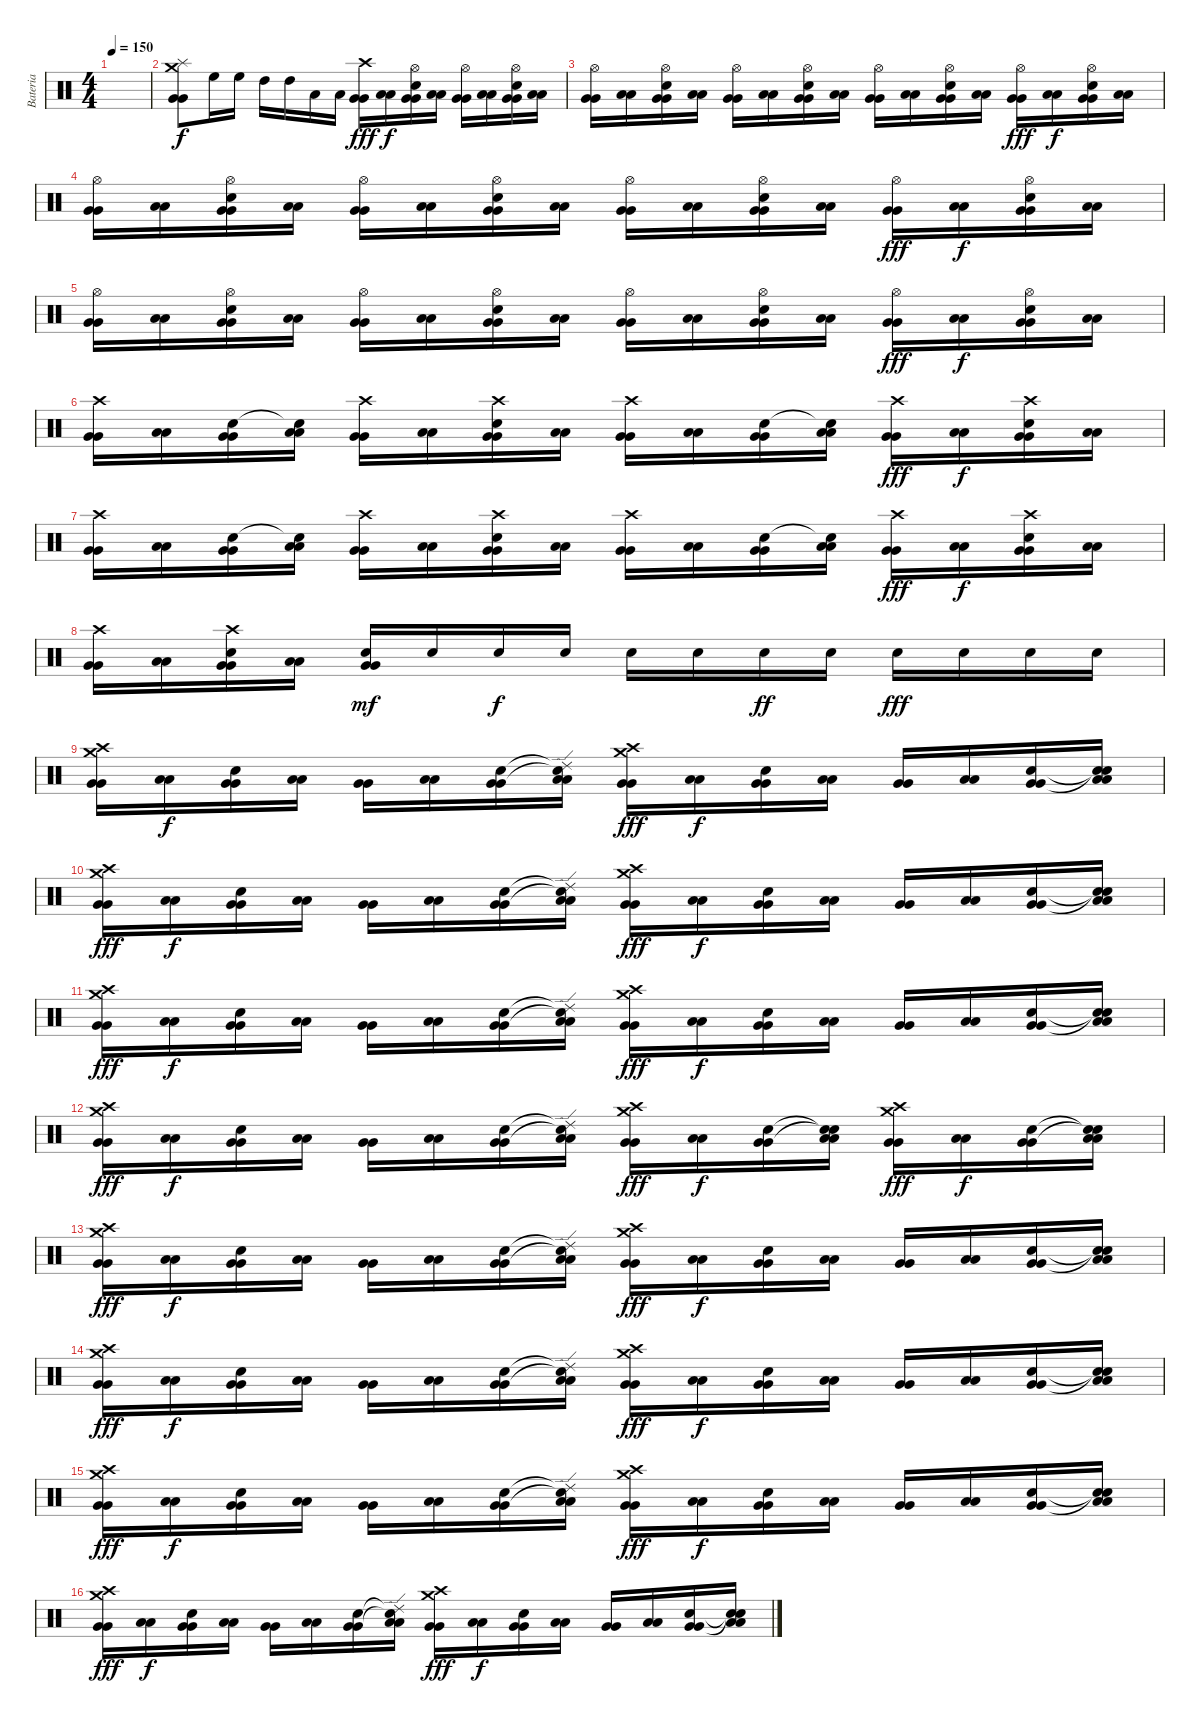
\track ("Bateria" "Bateria") {instrument percussion}
\staff {score}
\articulation defaults
\ts (4 4)
\tempo 150
\clef neutral
\ks c
|
("Splash (hit)" "Crash medium (hit)" "Very Low Tom (hit)" "Very Low Tom (hit)").8 "High Floor Tom (hit)".16 "High Floor Tom (hit)".16 "High Tom (hit)".16 "High Tom (hit)".16 "Low Tom (hit)".16 "Low Tom (hit)".16 ("Crash high (hit)" "Very Low Tom (hit)" "Very Low Tom (hit)").16{dy fff} ("Low Floor Tom (hit)" "Low Floor Tom (hit)").16{dy f} ("Hi-Hat (open)" "Electric Snare (hit)" "Very Low Tom (hit)" "Very Low Tom (hit)").16 ("Low Floor Tom (hit)" "Low Floor Tom (hit)").16 ("Hi-Hat (open)" "Very Low Tom (hit)" "Very Low Tom (hit)").16 ("Low Floor Tom (hit)" "Low Floor Tom (hit)").16 ("Hi-Hat (open)" "Electric Snare (hit)" "Very Low Tom (hit)" "Very Low Tom (hit)").16 ("Low Floor Tom (hit)" "Low Floor Tom (hit)").16 |
("Hi-Hat (open)" "Very Low Tom (hit)" "Very Low Tom (hit)").16 ("Low Floor Tom (hit)" "Low Floor Tom (hit)").16 ("Hi-Hat (open)" "Electric Snare (hit)" "Very Low Tom (hit)" "Very Low Tom (hit)").16 ("Low Floor Tom (hit)" "Low Floor Tom (hit)").16 ("Hi-Hat (open)" "Very Low Tom (hit)" "Very Low Tom (hit)").16 ("Low Floor Tom (hit)" "Low Floor Tom (hit)").16 ("Hi-Hat (open)" "Electric Snare (hit)" "Very Low Tom (hit)" "Very Low Tom (hit)").16 ("Low Floor Tom (hit)" "Low Floor Tom (hit)").16 ("Hi-Hat (open)" "Very Low Tom (hit)" "Very Low Tom (hit)").16 ("Low Floor Tom (hit)" "Low Floor Tom (hit)").16 ("Hi-Hat (open)" "Electric Snare (hit)" "Very Low Tom (hit)" "Very Low Tom (hit)").16 ("Low Floor Tom (hit)" "Low Floor Tom (hit)").16 ("Hi-Hat (open)" "Very Low Tom (hit)" "Very Low Tom (hit)").16{dy fff} ("Low Floor Tom (hit)" "Low Floor Tom (hit)").16{dy f} ("Hi-Hat (open)" "Electric Snare (hit)" "Very Low Tom (hit)" "Very Low Tom (hit)").16 ("Low Floor Tom (hit)" "Low Floor Tom (hit)").16 |
("Hi-Hat (open)" "Very Low Tom (hit)" "Very Low Tom (hit)").16 ("Low Floor Tom (hit)" "Low Floor Tom (hit)").16 ("Hi-Hat (open)" "Electric Snare (hit)" "Very Low Tom (hit)" "Very Low Tom (hit)").16 ("Low Floor Tom (hit)" "Low Floor Tom (hit)").16 ("Hi-Hat (open)" "Very Low Tom (hit)" "Very Low Tom (hit)").16 ("Low Floor Tom (hit)" "Low Floor Tom (hit)").16 ("Hi-Hat (open)" "Electric Snare (hit)" "Very Low Tom (hit)" "Very Low Tom (hit)").16 ("Low Floor Tom (hit)" "Low Floor Tom (hit)").16 ("Hi-Hat (open)" "Very Low Tom (hit)" "Very Low Tom (hit)").16 ("Low Floor Tom (hit)" "Low Floor Tom (hit)").16 ("Hi-Hat (open)" "Electric Snare (hit)" "Very Low Tom (hit)" "Very Low Tom (hit)").16 ("Low Floor Tom (hit)" "Low Floor Tom (hit)").16 ("Hi-Hat (open)" "Very Low Tom (hit)" "Very Low Tom (hit)").16{dy fff} ("Low Floor Tom (hit)" "Low Floor Tom (hit)").16{dy f} ("Hi-Hat (open)" "Electric Snare (hit)" "Very Low Tom (hit)" "Very Low Tom (hit)").16 ("Low Floor Tom (hit)" "Low Floor Tom (hit)").16 |
("Hi-Hat (open)" "Very Low Tom (hit)" "Very Low Tom (hit)").16 ("Low Floor Tom (hit)" "Low Floor Tom (hit)").16 ("Hi-Hat (open)" "Electric Snare (hit)" "Very Low Tom (hit)" "Very Low Tom (hit)").16 ("Low Floor Tom (hit)" "Low Floor Tom (hit)").16 ("Hi-Hat (open)" "Very Low Tom (hit)" "Very Low Tom (hit)").16 ("Low Floor Tom (hit)" "Low Floor Tom (hit)").16 ("Hi-Hat (open)" "Electric Snare (hit)" "Very Low Tom (hit)" "Very Low Tom (hit)").16 ("Low Floor Tom (hit)" "Low Floor Tom (hit)").16 ("Hi-Hat (open)" "Very Low Tom (hit)" "Very Low Tom (hit)").16 ("Low Floor Tom (hit)" "Low Floor Tom (hit)").16 ("Hi-Hat (open)" "Electric Snare (hit)" "Very Low Tom (hit)" "Very Low Tom (hit)").16 ("Low Floor Tom (hit)" "Low Floor Tom (hit)").16 ("Hi-Hat (open)" "Very Low Tom (hit)" "Very Low Tom (hit)").16{dy fff} ("Low Floor Tom (hit)" "Low Floor Tom (hit)").16{dy f} ("Hi-Hat (open)" "Electric Snare (hit)" "Very Low Tom (hit)" "Very Low Tom (hit)").16 ("Low Floor Tom (hit)" "Low Floor Tom (hit)").16 |
("Crash high (hit)" "Very Low Tom (hit)" "Very Low Tom (hit)").16 ("Low Floor Tom (hit)" "Low Floor Tom (hit)").16 ("Electric Snare (hit)" "Very Low Tom (hit)" "Very Low Tom (hit)").16 ("Snare (hit)"{t} "Low Floor Tom (hit)" "Low Floor Tom (hit)").16 ("Crash high (hit)" "Very Low Tom (hit)" "Very Low Tom (hit)").16 ("Low Floor Tom (hit)" "Low Floor Tom (hit)").16 ("Crash high (hit)" "Electric Snare (hit)" "Very Low Tom (hit)" "Very Low Tom (hit)").16 ("Low Floor Tom (hit)" "Low Floor Tom (hit)").16 ("Crash high (hit)" "Very Low Tom (hit)" "Very Low Tom (hit)").16 ("Low Floor Tom (hit)" "Low Floor Tom (hit)").16 ("Electric Snare (hit)" "Very Low Tom (hit)" "Very Low Tom (hit)").16 ("Snare (hit)"{t} "Low Floor Tom (hit)" "Low Floor Tom (hit)").16 ("Crash high (hit)" "Very Low Tom (hit)" "Very Low Tom (hit)").16{dy fff} ("Low Floor Tom (hit)" "Low Floor Tom (hit)").16{dy f} ("Crash high (hit)" "Electric Snare (hit)" "Very Low Tom (hit)" "Very Low Tom (hit)").16 ("Low Floor Tom (hit)" "Low Floor Tom (hit)").16 |
("Crash high (hit)" "Very Low Tom (hit)" "Very Low Tom (hit)").16 ("Low Floor Tom (hit)" "Low Floor Tom (hit)").16 ("Electric Snare (hit)" "Very Low Tom (hit)" "Very Low Tom (hit)").16 ("Snare (hit)"{t} "Low Floor Tom (hit)" "Low Floor Tom (hit)").16 ("Crash high (hit)" "Very Low Tom (hit)" "Very Low Tom (hit)").16 ("Low Floor Tom (hit)" "Low Floor Tom (hit)").16 ("Crash high (hit)" "Electric Snare (hit)" "Very Low Tom (hit)" "Very Low Tom (hit)").16 ("Low Floor Tom (hit)" "Low Floor Tom (hit)").16 ("Crash high (hit)" "Very Low Tom (hit)" "Very Low Tom (hit)").16 ("Low Floor Tom (hit)" "Low Floor Tom (hit)").16 ("Electric Snare (hit)" "Very Low Tom (hit)" "Very Low Tom (hit)").16 ("Snare (hit)"{t} "Low Floor Tom (hit)" "Low Floor Tom (hit)").16 ("Crash high (hit)" "Very Low Tom (hit)" "Very Low Tom (hit)").16{dy fff} ("Low Floor Tom (hit)" "Low Floor Tom (hit)").16{dy f} ("Crash high (hit)" "Electric Snare (hit)" "Very Low Tom (hit)" "Very Low Tom (hit)").16 ("Low Floor Tom (hit)" "Low Floor Tom (hit)").16 |
("Crash high (hit)" "Very Low Tom (hit)" "Very Low Tom (hit)").16 ("Low Floor Tom (hit)" "Low Floor Tom (hit)").16 ("Crash high (hit)" "Electric Snare (hit)" "Very Low Tom (hit)" "Very Low Tom (hit)").16 ("Low Floor Tom (hit)" "Low Floor Tom (hit)").16 ("Electric Snare (hit)" "Very Low Tom (hit)" "Very Low Tom (hit)").16{dy mf} "Electric Snare (hit)".16 "Electric Snare (hit)".16{dy f} "Electric Snare (hit)".16 "Electric Snare (hit)".16 "Electric Snare (hit)".16 "Electric Snare (hit)".16{dy ff} "Electric Snare (hit)".16 "Electric Snare (hit)".16{dy fff} "Electric Snare (hit)".16 "Electric Snare (hit)".16 "Electric Snare (hit)".16 |
("Crash high (hit)" "Crash medium (hit)" "Very Low Tom (hit)" "Very Low Tom (hit)").16 ("Low Floor Tom (hit)" "Low Floor Tom (hit)").16{dy f} ("Electric Snare (hit)" "Very Low Tom (hit)" "Very Low Tom (hit)").16 ("Low Floor Tom (hit)" "Low Floor Tom (hit)").16 ("Very Low Tom (hit)" "Very Low Tom (hit)").16 ("Low Floor Tom (hit)" "Low Floor Tom (hit)").16 ("Electric Snare (hit)" "Very Low Tom (hit)" "Very Low Tom (hit)").16 ("Ride (edge) 2"{t} "Snare (hit)"{t} "Low Floor Tom (hit)" "Low Floor Tom (hit)").16 ("Crash high (hit)" "Crash medium (hit)" "Very Low Tom (hit)" "Very Low Tom (hit)").16{dy fff} ("Low Floor Tom (hit)" "Low Floor Tom (hit)").16{dy f} ("Electric Snare (hit)" "Very Low Tom (hit)" "Very Low Tom (hit)").16 ("Low Floor Tom (hit)" "Low Floor Tom (hit)").16 ("Very Low Tom (hit)" "Very Low Tom (hit)").16 ("Low Floor Tom (hit)" "Low Floor Tom (hit)").16 ("Electric Snare (hit)" "Very Low Tom (hit)" "Very Low Tom (hit)").16 ("Snare (hit)"{t} "Snare (hit)"{t} "Low Floor Tom (hit)" "Low Floor Tom (hit)").16 |
("Crash high (hit)" "Crash medium (hit)" "Very Low Tom (hit)" "Very Low Tom (hit)").16{dy fff} ("Low Floor Tom (hit)" "Low Floor Tom (hit)").16{dy f} ("Electric Snare (hit)" "Very Low Tom (hit)" "Very Low Tom (hit)").16 ("Low Floor Tom (hit)" "Low Floor Tom (hit)").16 ("Very Low Tom (hit)" "Very Low Tom (hit)").16 ("Low Floor Tom (hit)" "Low Floor Tom (hit)").16 ("Electric Snare (hit)" "Very Low Tom (hit)" "Very Low Tom (hit)").16 ("Ride (edge) 2"{t} "Snare (hit)"{t} "Low Floor Tom (hit)" "Low Floor Tom (hit)").16 ("Crash high (hit)" "Crash medium (hit)" "Very Low Tom (hit)" "Very Low Tom (hit)").16{dy fff} ("Low Floor Tom (hit)" "Low Floor Tom (hit)").16{dy f} ("Electric Snare (hit)" "Very Low Tom (hit)" "Very Low Tom (hit)").16 ("Low Floor Tom (hit)" "Low Floor Tom (hit)").16 ("Very Low Tom (hit)" "Very Low Tom (hit)").16 ("Low Floor Tom (hit)" "Low Floor Tom (hit)").16 ("Electric Snare (hit)" "Very Low Tom (hit)" "Very Low Tom (hit)").16 ("Snare (hit)"{t} "Snare (hit)"{t} "Low Floor Tom (hit)" "Low Floor Tom (hit)").16 |
("Crash high (hit)" "Crash medium (hit)" "Very Low Tom (hit)" "Very Low Tom (hit)").16{dy fff} ("Low Floor Tom (hit)" "Low Floor Tom (hit)").16{dy f} ("Electric Snare (hit)" "Very Low Tom (hit)" "Very Low Tom (hit)").16 ("Low Floor Tom (hit)" "Low Floor Tom (hit)").16 ("Very Low Tom (hit)" "Very Low Tom (hit)").16 ("Low Floor Tom (hit)" "Low Floor Tom (hit)").16 ("Electric Snare (hit)" "Very Low Tom (hit)" "Very Low Tom (hit)").16 ("Ride (edge) 2"{t} "Snare (hit)"{t} "Low Floor Tom (hit)" "Low Floor Tom (hit)").16 ("Crash high (hit)" "Crash medium (hit)" "Very Low Tom (hit)" "Very Low Tom (hit)").16{dy fff} ("Low Floor Tom (hit)" "Low Floor Tom (hit)").16{dy f} ("Electric Snare (hit)" "Very Low Tom (hit)" "Very Low Tom (hit)").16 ("Low Floor Tom (hit)" "Low Floor Tom (hit)").16 ("Very Low Tom (hit)" "Very Low Tom (hit)").16 ("Low Floor Tom (hit)" "Low Floor Tom (hit)").16 ("Electric Snare (hit)" "Very Low Tom (hit)" "Very Low Tom (hit)").16 ("Snare (hit)"{t} "Snare (hit)"{t} "Low Floor Tom (hit)" "Low Floor Tom (hit)").16 |
("Crash high (hit)" "Crash medium (hit)" "Very Low Tom (hit)" "Very Low Tom (hit)").16{dy fff} ("Low Floor Tom (hit)" "Low Floor Tom (hit)").16{dy f} ("Electric Snare (hit)" "Very Low Tom (hit)" "Very Low Tom (hit)").16 ("Low Floor Tom (hit)" "Low Floor Tom (hit)").16 ("Very Low Tom (hit)" "Very Low Tom (hit)").16 ("Low Floor Tom (hit)" "Low Floor Tom (hit)").16 ("Electric Snare (hit)" "Very Low Tom (hit)" "Very Low Tom (hit)").16 ("Ride (edge) 2"{t} "Snare (hit)"{t} "Low Floor Tom (hit)" "Low Floor Tom (hit)").16 ("Crash high (hit)" "Crash medium (hit)" "Very Low Tom (hit)" "Very Low Tom (hit)").16{dy fff} ("Low Floor Tom (hit)" "Low Floor Tom (hit)").16{dy f} ("Electric Snare (hit)" "Very Low Tom (hit)" "Very Low Tom (hit)").16 ("Snare (hit)"{t} "Snare (hit)"{t} "Low Floor Tom (hit)" "Low Floor Tom (hit)").16 ("Crash high (hit)" "Crash medium (hit)" "Very Low Tom (hit)" "Very Low Tom (hit)").16{dy fff} ("Low Floor Tom (hit)" "Low Floor Tom (hit)").16{dy f} ("Electric Snare (hit)" "Very Low Tom (hit)" "Very Low Tom (hit)").16 ("Snare (hit)"{t} "Snare (hit)"{t} "Low Floor Tom (hit)" "Low Floor Tom (hit)").16 |
("Crash high (hit)" "Crash medium (hit)" "Very Low Tom (hit)" "Very Low Tom (hit)").16{dy fff} ("Low Floor Tom (hit)" "Low Floor Tom (hit)").16{dy f} ("Electric Snare (hit)" "Very Low Tom (hit)" "Very Low Tom (hit)").16 ("Low Floor Tom (hit)" "Low Floor Tom (hit)").16 ("Very Low Tom (hit)" "Very Low Tom (hit)").16 ("Low Floor Tom (hit)" "Low Floor Tom (hit)").16 ("Electric Snare (hit)" "Very Low Tom (hit)" "Very Low Tom (hit)").16 ("Ride (edge) 2"{t} "Snare (hit)"{t} "Low Floor Tom (hit)" "Low Floor Tom (hit)").16 ("Crash high (hit)" "Crash medium (hit)" "Very Low Tom (hit)" "Very Low Tom (hit)").16{dy fff} ("Low Floor Tom (hit)" "Low Floor Tom (hit)").16{dy f} ("Electric Snare (hit)" "Very Low Tom (hit)" "Very Low Tom (hit)").16 ("Low Floor Tom (hit)" "Low Floor Tom (hit)").16 ("Very Low Tom (hit)" "Very Low Tom (hit)").16 ("Low Floor Tom (hit)" "Low Floor Tom (hit)").16 ("Electric Snare (hit)" "Very Low Tom (hit)" "Very Low Tom (hit)").16 ("Snare (hit)"{t} "Snare (hit)"{t} "Low Floor Tom (hit)" "Low Floor Tom (hit)").16 |
("Crash high (hit)" "Crash medium (hit)" "Very Low Tom (hit)" "Very Low Tom (hit)").16{dy fff} ("Low Floor Tom (hit)" "Low Floor Tom (hit)").16{dy f} ("Electric Snare (hit)" "Very Low Tom (hit)" "Very Low Tom (hit)").16 ("Low Floor Tom (hit)" "Low Floor Tom (hit)").16 ("Very Low Tom (hit)" "Very Low Tom (hit)").16 ("Low Floor Tom (hit)" "Low Floor Tom (hit)").16 ("Electric Snare (hit)" "Very Low Tom (hit)" "Very Low Tom (hit)").16 ("Ride (edge) 2"{t} "Snare (hit)"{t} "Low Floor Tom (hit)" "Low Floor Tom (hit)").16 ("Crash high (hit)" "Crash medium (hit)" "Very Low Tom (hit)" "Very Low Tom (hit)").16{dy fff} ("Low Floor Tom (hit)" "Low Floor Tom (hit)").16{dy f} ("Electric Snare (hit)" "Very Low Tom (hit)" "Very Low Tom (hit)").16 ("Low Floor Tom (hit)" "Low Floor Tom (hit)").16 ("Very Low Tom (hit)" "Very Low Tom (hit)").16 ("Low Floor Tom (hit)" "Low Floor Tom (hit)").16 ("Electric Snare (hit)" "Very Low Tom (hit)" "Very Low Tom (hit)").16 ("Snare (hit)"{t} "Snare (hit)"{t} "Low Floor Tom (hit)" "Low Floor Tom (hit)").16 |
("Crash high (hit)" "Crash medium (hit)" "Very Low Tom (hit)" "Very Low Tom (hit)").16{dy fff} ("Low Floor Tom (hit)" "Low Floor Tom (hit)").16{dy f} ("Electric Snare (hit)" "Very Low Tom (hit)" "Very Low Tom (hit)").16 ("Low Floor Tom (hit)" "Low Floor Tom (hit)").16 ("Very Low Tom (hit)" "Very Low Tom (hit)").16 ("Low Floor Tom (hit)" "Low Floor Tom (hit)").16 ("Electric Snare (hit)" "Very Low Tom (hit)" "Very Low Tom (hit)").16 ("Ride (edge) 2"{t} "Snare (hit)"{t} "Low Floor Tom (hit)" "Low Floor Tom (hit)").16 ("Crash high (hit)" "Crash medium (hit)" "Very Low Tom (hit)" "Very Low Tom (hit)").16{dy fff} ("Low Floor Tom (hit)" "Low Floor Tom (hit)").16{dy f} ("Electric Snare (hit)" "Very Low Tom (hit)" "Very Low Tom (hit)").16 ("Low Floor Tom (hit)" "Low Floor Tom (hit)").16 ("Very Low Tom (hit)" "Very Low Tom (hit)").16 ("Low Floor Tom (hit)" "Low Floor Tom (hit)").16 ("Electric Snare (hit)" "Very Low Tom (hit)" "Very Low Tom (hit)").16 ("Snare (hit)"{t} "Snare (hit)"{t} "Low Floor Tom (hit)" "Low Floor Tom (hit)").16 |
("Crash high (hit)" "Crash medium (hit)" "Very Low Tom (hit)" "Very Low Tom (hit)").16{dy fff} ("Low Floor Tom (hit)" "Low Floor Tom (hit)").16{dy f} ("Electric Snare (hit)" "Very Low Tom (hit)" "Very Low Tom (hit)").16 ("Low Floor Tom (hit)" "Low Floor Tom (hit)").16 ("Very Low Tom (hit)" "Very Low Tom (hit)").16 ("Low Floor Tom (hit)" "Low Floor Tom (hit)").16 ("Electric Snare (hit)" "Very Low Tom (hit)" "Very Low Tom (hit)").16 ("Ride (edge) 2"{t} "Snare (hit)"{t} "Low Floor Tom (hit)" "Low Floor Tom (hit)").16 ("Crash high (hit)" "Crash medium (hit)" "Very Low Tom (hit)" "Very Low Tom (hit)").16{dy fff} ("Low Floor Tom (hit)" "Low Floor Tom (hit)").16{dy f} ("Electric Snare (hit)" "Very Low Tom (hit)" "Very Low Tom (hit)").16 ("Low Floor Tom (hit)" "Low Floor Tom (hit)").16 ("Very Low Tom (hit)" "Very Low Tom (hit)").16 ("Low Floor Tom (hit)" "Low Floor Tom (hit)").16 ("Electric Snare (hit)" "Very Low Tom (hit)" "Very Low Tom (hit)").16 ("Snare (hit)"{t} "Snare (hit)"{t} "Low Floor Tom (hit)" "Low Floor Tom (hit)").16
